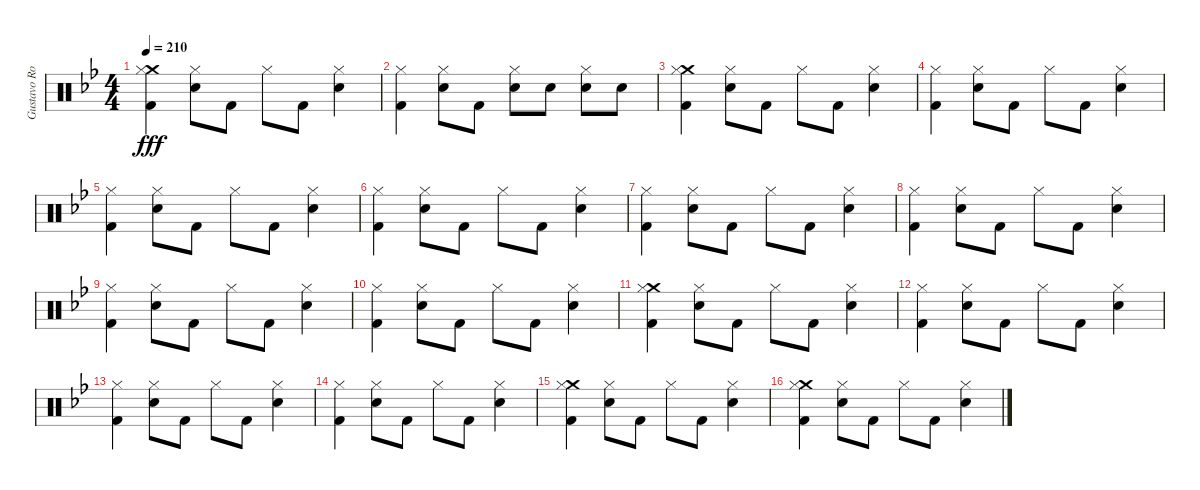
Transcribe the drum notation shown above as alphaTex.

\track ("Gustavo Rowek" "Gustavo Ro") {instrument percussion}
\staff {score}
\articulation defaults
\ts (4 4)
\tempo 210
\clef neutral
\ks gminor
("Crash medium (hit)" "Hi-Hat (closed)" "Kick (hit) 2").4{dy fff} ("Hi-Hat (closed)" "Snare (hit) 2").8 "Kick (hit) 2".8 "Hi-Hat (closed)".8 "Kick (hit) 2".8 ("Hi-Hat (closed)" "Snare (hit) 2").4 |
("Hi-Hat (closed)" "Kick (hit) 2").4 ("Hi-Hat (closed)" "Snare (hit) 2").8 "Kick (hit) 2".8 ("Hi-Hat (closed)" "Snare (hit) 2").8 "Snare (hit) 2".8 ("Hi-Hat (closed)" "Snare (hit) 2").8 "Snare (hit) 2".8 |
("Crash medium (hit)" "Hi-Hat (closed)" "Kick (hit) 2").4 ("Hi-Hat (closed)" "Snare (hit) 2").8 "Kick (hit) 2".8 "Hi-Hat (closed)".8 "Kick (hit) 2".8 ("Hi-Hat (closed)" "Snare (hit) 2").4 |
("Hi-Hat (closed)" "Kick (hit) 2").4 ("Hi-Hat (closed)" "Snare (hit) 2").8 "Kick (hit) 2".8 "Hi-Hat (closed)".8 "Kick (hit) 2".8 ("Hi-Hat (closed)" "Snare (hit) 2").4 |
("Hi-Hat (closed)" "Kick (hit) 2").4 ("Hi-Hat (closed)" "Snare (hit) 2").8 "Kick (hit) 2".8 "Hi-Hat (closed)".8 "Kick (hit) 2".8 ("Hi-Hat (closed)" "Snare (hit) 2").4 |
("Hi-Hat (closed)" "Kick (hit) 2").4 ("Hi-Hat (closed)" "Snare (hit) 2").8 "Kick (hit) 2".8 "Hi-Hat (closed)".8 "Kick (hit) 2".8 ("Hi-Hat (closed)" "Snare (hit) 2").4 |
("Hi-Hat (closed)" "Kick (hit) 2").4 ("Hi-Hat (closed)" "Snare (hit) 2").8 "Kick (hit) 2".8 "Hi-Hat (closed)".8 "Kick (hit) 2".8 ("Hi-Hat (closed)" "Snare (hit) 2").4 |
("Hi-Hat (closed)" "Kick (hit) 2").4 ("Hi-Hat (closed)" "Snare (hit) 2").8 "Kick (hit) 2".8 "Hi-Hat (closed)".8 "Kick (hit) 2".8 ("Hi-Hat (closed)" "Snare (hit) 2").4 |
("Hi-Hat (closed)" "Kick (hit) 2").4 ("Hi-Hat (closed)" "Snare (hit) 2").8 "Kick (hit) 2".8 "Hi-Hat (closed)".8 "Kick (hit) 2".8 ("Hi-Hat (closed)" "Snare (hit) 2").4 |
("Hi-Hat (closed)" "Kick (hit) 2").4 ("Hi-Hat (closed)" "Snare (hit) 2").8 "Kick (hit) 2".8 "Hi-Hat (closed)".8 "Kick (hit) 2".8 ("Hi-Hat (closed)" "Snare (hit) 2").4 |
("Crash medium (hit)" "Hi-Hat (closed)" "Kick (hit) 2").4 ("Hi-Hat (closed)" "Snare (hit) 2").8 "Kick (hit) 2".8 "Hi-Hat (closed)".8 "Kick (hit) 2".8 ("Hi-Hat (closed)" "Snare (hit) 2").4 |
("Hi-Hat (closed)" "Kick (hit) 2").4 ("Hi-Hat (closed)" "Snare (hit) 2").8 "Kick (hit) 2".8 "Hi-Hat (closed)".8 "Kick (hit) 2".8 ("Hi-Hat (closed)" "Snare (hit) 2").4 |
("Hi-Hat (closed)" "Kick (hit) 2").4 ("Hi-Hat (closed)" "Snare (hit) 2").8 "Kick (hit) 2".8 "Hi-Hat (closed)".8 "Kick (hit) 2".8 ("Hi-Hat (closed)" "Snare (hit) 2").4 |
("Hi-Hat (closed)" "Kick (hit) 2").4 ("Hi-Hat (closed)" "Snare (hit) 2").8 "Kick (hit) 2".8 "Hi-Hat (closed)".8 "Kick (hit) 2".8 ("Hi-Hat (closed)" "Snare (hit) 2").4 |
("Crash medium (hit)" "Hi-Hat (closed)" "Kick (hit) 2").4 ("Hi-Hat (closed)" "Snare (hit) 2").8 "Kick (hit) 2".8 "Hi-Hat (closed)".8 "Kick (hit) 2".8 ("Hi-Hat (closed)" "Snare (hit) 2").4 |
("Crash medium (hit)" "Hi-Hat (closed)" "Kick (hit) 2").4 ("Hi-Hat (closed)" "Snare (hit) 2").8 "Kick (hit) 2".8 "Hi-Hat (closed)".8 "Kick (hit) 2".8 ("Hi-Hat (closed)" "Snare (hit) 2").4
